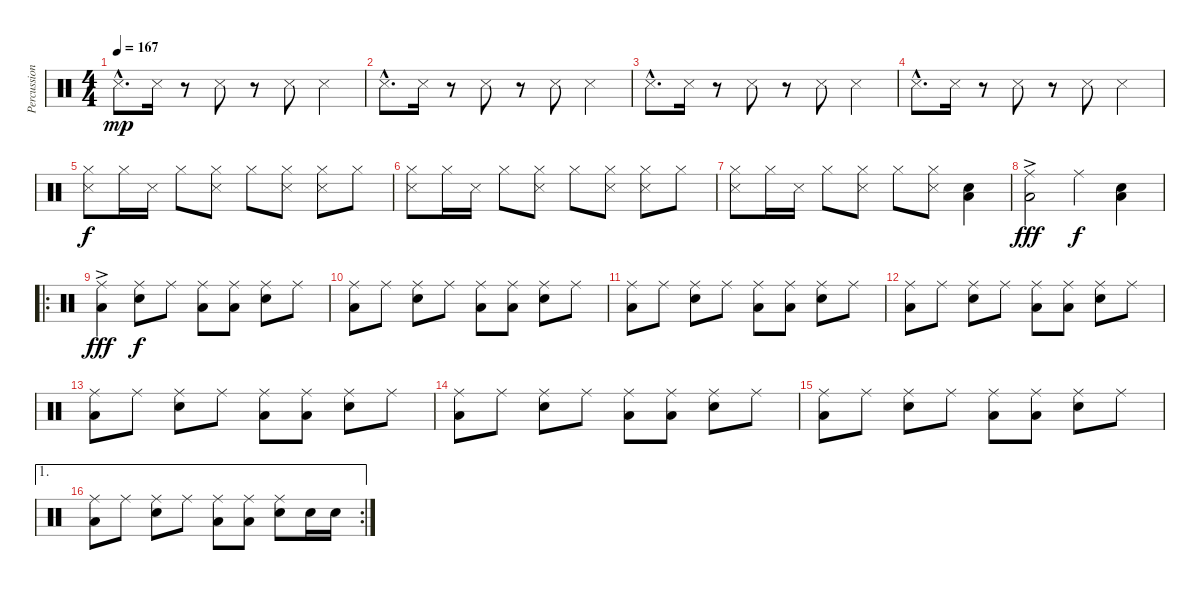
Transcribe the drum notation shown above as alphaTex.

\track ("Percussion" "Percussion") {instrument percussion}
\staff {score}
\articulation defaults
\ts (4 4)
\tempo 167
\clef neutral
\ks c "Snare (side stick) 3"{hac}.8{d dy mp} "Snare (side stick) 3".16
r.8 "Snare (side stick) 3".8 r.8 "Snare (side stick) 3".8 "Snare (side stick) 3".4 |
"Snare (side stick) 3"{hac}.8{d} "Snare (side stick) 3".16 r.8 "Snare (side stick) 3".8 r.8 "Snare (side stick) 3".8 "Snare (side stick) 3".4 |
"Snare (side stick) 3"{hac}.8{d} "Snare (side stick) 3".16 r.8 "Snare (side stick) 3".8 r.8 "Snare (side stick) 3".8 "Snare (side stick) 3".4 |
"Snare (side stick) 3"{hac}.8{d} "Snare (side stick) 3".16 r.8 "Snare (side stick) 3".8 r.8 "Snare (side stick) 3".8 "Snare (side stick) 3".4 |
("Hi-Hat (closed)" "Snare (side stick) 3").8{dy f} "Hi-Hat (closed)".16 "Snare (side stick) 3".16 "Hi-Hat (closed)".8 ("Hi-Hat (closed)" "Snare (side stick) 3").8 "Hi-Hat (closed)".8 ("Hi-Hat (closed)" "Snare (side stick) 3").8 ("Hi-Hat (closed)" "Snare (side stick) 3").8 "Hi-Hat (closed)".8 |
("Hi-Hat (closed)" "Snare (side stick) 3").8 "Hi-Hat (closed)".16 "Snare (side stick) 3".16 "Hi-Hat (closed)".8 ("Hi-Hat (closed)" "Snare (side stick) 3").8 "Hi-Hat (closed)".8 ("Hi-Hat (closed)" "Snare (side stick) 3").8 ("Hi-Hat (closed)" "Snare (side stick) 3").8 "Hi-Hat (closed)".8 |
("Hi-Hat (closed)" "Snare (side stick) 3").8 "Hi-Hat (closed)".16 "Snare (side stick) 3".16 "Hi-Hat (closed)".8 ("Hi-Hat (closed)" "Snare (side stick) 3").8 "Hi-Hat (closed)".8 ("Hi-Hat (closed)" "Snare (side stick) 3").8 ("Snare (hit) 2" "Low Tom (hit)").4 |
("Ride (middle)"{ac} "Low Floor Tom (hit)").2{dy fff} "Ride (middle)".4{dy f} ("Snare (hit) 2" "Low Tom (hit)").4 |
\ro
("Ride (middle)"{ac} "Low Floor Tom (hit)").4{dy fff} ("Ride (middle)" "Snare (hit) 2").8{dy f} "Ride (middle)".8 ("Ride (middle)" "Low Floor Tom (hit)").8 ("Ride (middle)" "Low Floor Tom (hit)").8 ("Ride (middle)" "Snare (hit) 2").8 "Ride (middle)".8 |
("Ride (middle)" "Low Floor Tom (hit)").8 "Ride (middle)".8 ("Ride (middle)" "Snare (hit) 2").8 "Ride (middle)".8 ("Ride (middle)" "Low Floor Tom (hit)").8 ("Ride (middle)" "Low Floor Tom (hit)").8 ("Ride (middle)" "Snare (hit) 2").8 "Ride (middle)".8 |
("Ride (middle)" "Low Floor Tom (hit)").8 "Ride (middle)".8 ("Ride (middle)" "Snare (hit) 2").8 "Ride (middle)".8 ("Ride (middle)" "Low Floor Tom (hit)").8 ("Ride (middle)" "Low Floor Tom (hit)").8 ("Ride (middle)" "Snare (hit) 2").8 "Ride (middle)".8 |
("Ride (middle)" "Low Floor Tom (hit)").8 "Ride (middle)".8 ("Ride (middle)" "Snare (hit) 2").8 "Ride (middle)".8 ("Ride (middle)" "Low Floor Tom (hit)").8 ("Ride (middle)" "Low Floor Tom (hit)").8 ("Ride (middle)" "Snare (hit) 2").8 "Ride (middle)".8 |
("Ride (middle)" "Low Floor Tom (hit)").8 "Ride (middle)".8 ("Ride (middle)" "Snare (hit) 2").8 "Ride (middle)".8 ("Ride (middle)" "Low Floor Tom (hit)").8 ("Ride (middle)" "Low Floor Tom (hit)").8 ("Ride (middle)" "Snare (hit) 2").8 "Ride (middle)".8 |
("Ride (middle)" "Low Floor Tom (hit)").8 "Ride (middle)".8 ("Ride (middle)" "Snare (hit) 2").8 "Ride (middle)".8 ("Ride (middle)" "Low Floor Tom (hit)").8 ("Ride (middle)" "Low Floor Tom (hit)").8 ("Ride (middle)" "Snare (hit) 2").8 "Ride (middle)".8 |
("Ride (middle)" "Low Floor Tom (hit)").8 "Ride (middle)".8 ("Ride (middle)" "Snare (hit) 2").8 "Ride (middle)".8 ("Ride (middle)" "Low Floor Tom (hit)").8 ("Ride (middle)" "Low Floor Tom (hit)").8 ("Ride (middle)" "Snare (hit) 2").8 "Ride (middle)".8 |
\ae 1
\rc 2
("Ride (middle)" "Low Floor Tom (hit)").8 "Ride (middle)".8 ("Ride (middle)" "Snare (hit) 2").8 "Ride (middle)".8 ("Ride (middle)" "Low Floor Tom (hit)").8 ("Ride (middle)" "Low Floor Tom (hit)").8 ("Ride (middle)" "Snare (hit) 2").8 "Snare (hit) 2".16 "Snare (hit) 2".16
